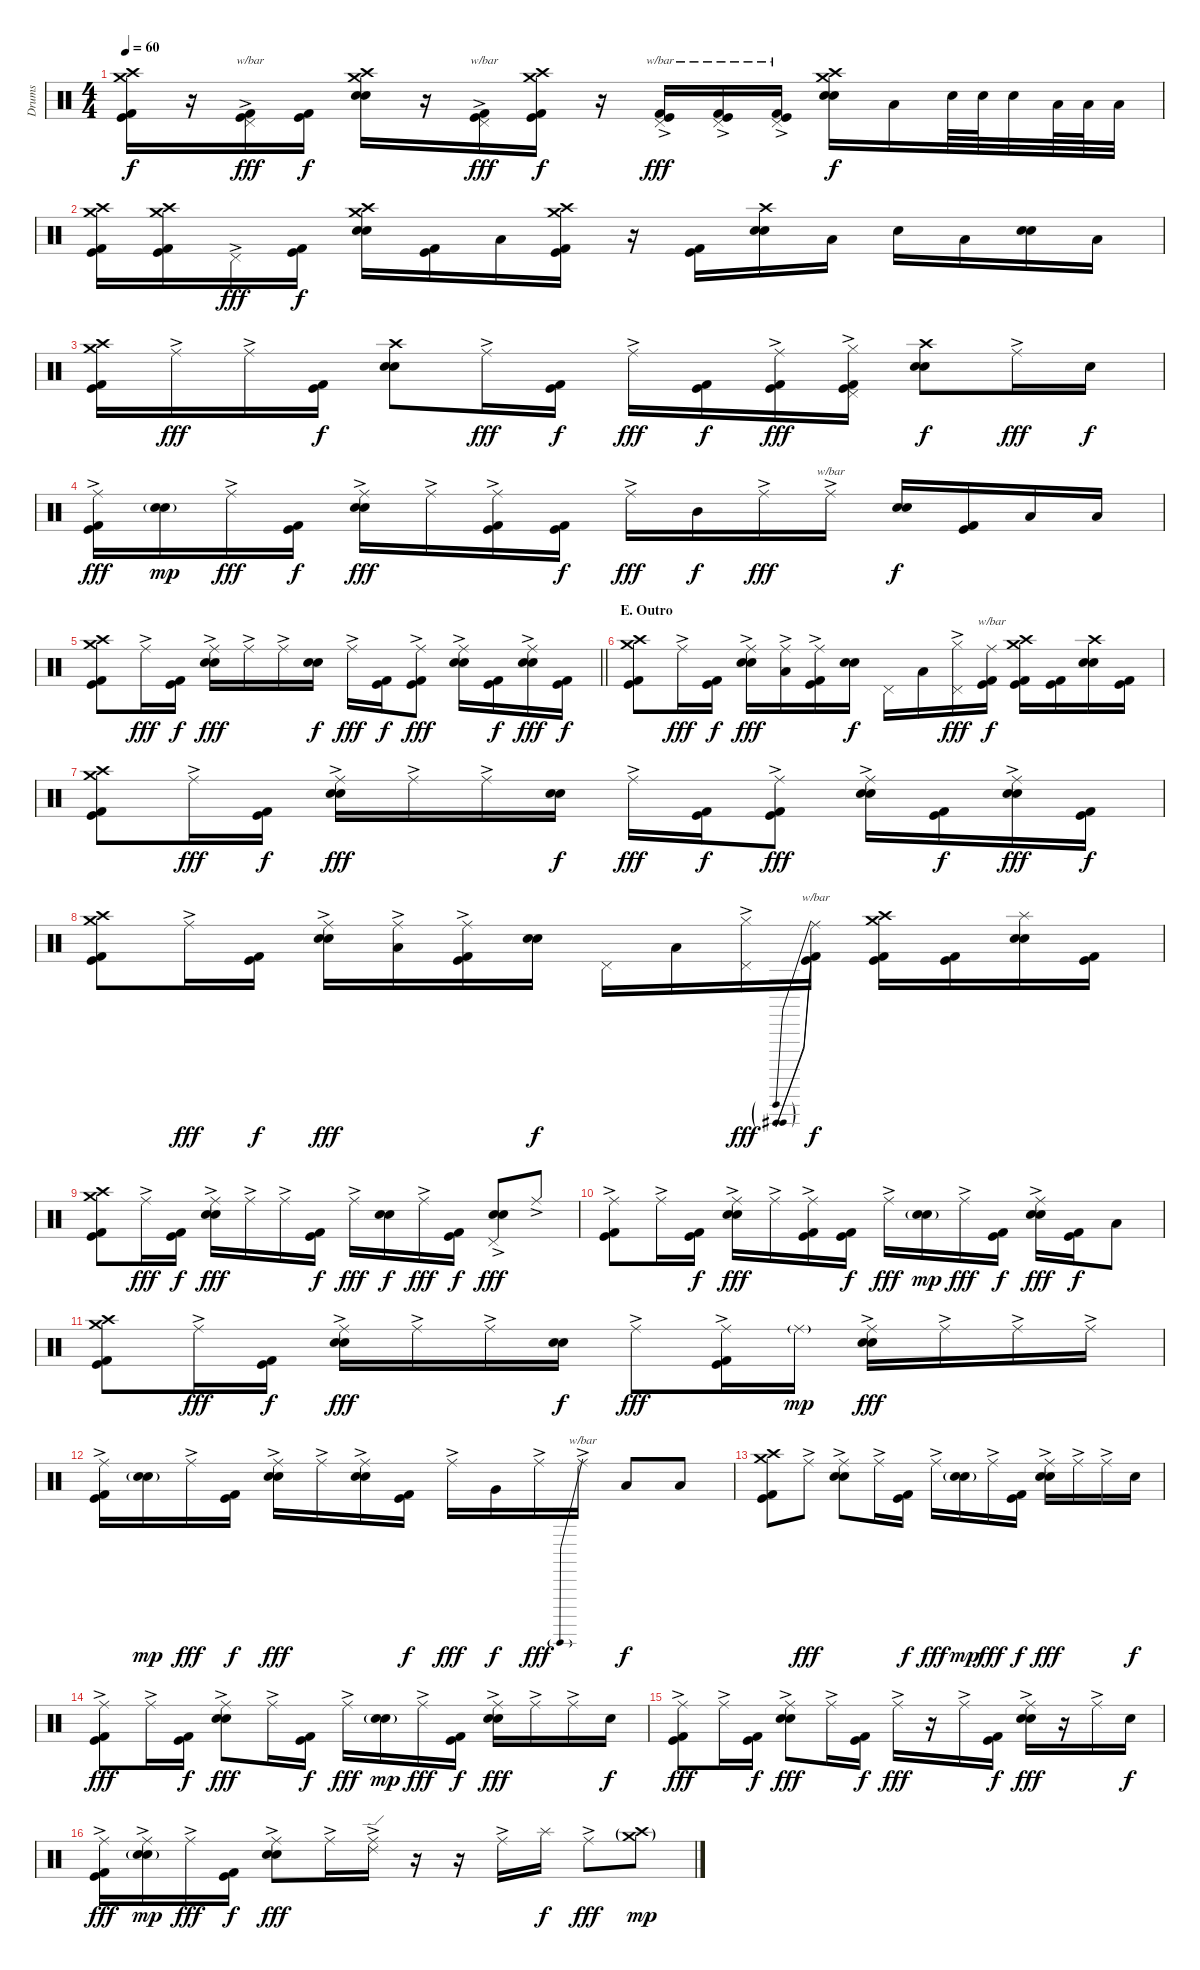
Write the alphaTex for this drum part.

\track ("Drums" "Drums") {instrument percussion}
\staff {score}
\articulation defaults
\ts (4 4)
\tempo 60
\clef neutral
\ks c
("Crash high (hit)" "Crash medium (hit)" "Kick (hit)" "Kick (hit) 2").16{dy f} r.16 ("Pedal Hi-Hat (hit)"{ac} "Kick (hit)" "Kick (hit) 2").16{tbe (custom default 0 0 45 -4 60 -4) dy fff} ("Kick (hit) 2" "Kick (hit)").16{dy f} ("Crash high (hit)" "Crash medium (hit)" "Snare (hit) 2" "Electric Snare (hit)").16 r.16 ("Pedal Hi-Hat (hit)"{ac} "Kick (hit)" "Kick (hit) 2").16{tbe (custom default 0 0 45 -4 60 -4) dy fff} ("Crash high (hit)" "Crash medium (hit)" "Kick (hit) 2" "Kick (hit)").16{dy f} r.16 ("Pedal Hi-Hat (hit)"{ac} "Kick (hit)" "Kick (hit) 2").16{tbe (custom default 0 0 45 -4 60 -4) dy fff} ("Pedal Hi-Hat (hit)"{ac} "Kick (hit)" "Kick (hit) 2").16{tbe (custom default 0 0 45 -4 60 -4)} ("Pedal Hi-Hat (hit)"{ac} "Kick (hit)" "Kick (hit) 2").16{tbe (custom default 0 0 45 -4 60 -4)} ("Crash high (hit)" "Crash medium (hit)" "Snare (hit) 2" "Electric Snare (hit)").16{dy f} "Low Floor Tom (hit)".16 "Electric Snare (hit)".64 "Electric Snare (hit)".64 "Electric Snare (hit)".32 "Low Tom (hit)".64 "Low Tom (hit)".64 "Low Tom (hit)".32 |
("Crash high (hit)" "Crash medium (hit)" "Kick (hit)" "Kick (hit) 2").16 ("Crash high (hit)" "Crash medium (hit)" "Kick (hit)" "Kick (hit) 2").16 "Pedal Hi-Hat (hit)"{ac}.16{dy fff} ("Kick (hit)" "Kick (hit) 2").16{dy f} ("Crash high (hit)" "Crash medium (hit)" "Snare (hit) 2" "Electric Snare (hit)").16 ("Kick (hit)" "Kick (hit) 2").16 "Low Tom (hit)".16 ("Crash high (hit)" "Crash medium (hit)" "Kick (hit) 2" "Kick (hit)").16 r.16 ("Kick (hit) 2" "Kick (hit)").16 ("Crash high (hit)" "Snare (hit) 2" "Electric Snare (hit)").16 "Low Floor Tom (hit)".16 "Snare (hit) 2".16 "Low Tom (hit)".16 ("Snare (hit) 2" "Electric Snare (hit)").16 "Low Floor Tom (hit)".16 |
("Crash high (hit)" "Crash medium (hit)" "Kick (hit)" "Kick (hit) 2").16 "Ride (middle)"{ac}.16{dy fff} "Ride (middle)"{ac}.16 ("Kick (hit)" "Kick (hit) 2").16{dy f} ("Crash high (hit)" "Snare (hit) 2" "Electric Snare (hit)").8 "Ride (middle)"{ac}.16{dy fff} ("Kick (hit)" "Kick (hit) 2").16{dy f} "Ride (middle)"{ac}.16{dy fff} ("Kick (hit)" "Kick (hit) 2").16{dy f} ("Ride (middle)"{ac} "Kick (hit)" "Kick (hit) 2").16{dy fff} ("Hi-Hat (closed)"{ac} "Pedal Hi-Hat (hit)"{ac} "Kick (hit)" "Kick (hit) 2").16 ("Crash high (hit)" "Snare (hit) 2" "Electric Snare (hit)").8{dy f} "Ride (middle)"{ac}.16{dy fff} "Snare (hit) 2".16{dy f} |
("Ride (middle)"{ac} "Kick (hit) 2" "Kick (hit)").16{dy fff} ("Electric Snare (hit)"{g} "Snare (hit) 2"{g}).16{dy mp} "Ride (middle)"{ac}.16{dy fff} ("Kick (hit) 2" "Kick (hit)").16{dy f} ("Ride (middle)"{ac} "Electric Snare (hit)" "Snare (hit) 2").16{dy fff} "Ride (middle)"{ac}.16 ("Ride (middle)"{ac} "Kick (hit) 2" "Kick (hit)").16 ("Kick (hit) 2" "Kick (hit)").16{dy f} "Ride (middle)"{ac}.16{dy fff} "Mid Tom (hit)".16{dy f} "Ride (middle)"{ac}.16{dy fff} "Ride (middle)"{ac}.16{tbe (custom default 0 0 45 -12 60 -12)} ("Electric Snare (hit)" "Snare (hit) 2").16{dy f} ("Kick (hit) 2" "Kick (hit)").16 "Low Tom (hit)".16 "Low Floor Tom (hit)".16 |
\barLineRight lightlight
("Crash high (hit)" "Crash medium (hit)" "Kick (hit)" "Kick (hit) 2").8 "Ride (middle)"{ac}.16{dy fff} ("Kick (hit)" "Kick (hit) 2").16{dy f} ("Ride (middle)"{ac} "Electric Snare (hit)" "Snare (hit) 2").16{dy fff} "Ride (middle)"{ac}.16 "Ride (middle)"{ac}.16 ("Electric Snare (hit)" "Snare (hit) 2").16{dy f} "Ride (middle)"{ac}.16{dy fff} ("Kick (hit)" "Kick (hit) 2").16{dy f} ("Ride (middle)"{ac} "Kick (hit)" "Kick (hit) 2").8{dy fff} ("Ride (middle)"{ac} "Electric Snare (hit)" "Snare (hit) 2").16 ("Kick (hit)" "Kick (hit) 2").16{dy f} ("Ride (middle)"{ac} "Electric Snare (hit)" "Snare (hit) 2").16{dy fff} ("Kick (hit)" "Kick (hit) 2").16{dy f} |
\section ("" "E. Outro")
("Crash high (hit)" "Crash medium (hit)" "Kick (hit)" "Kick (hit) 2").8 "Ride (middle)"{ac}.16{dy fff} ("Kick (hit)" "Kick (hit) 2").16{dy f} ("Ride (middle)"{ac} "Electric Snare (hit)" "Snare (hit) 2").16{dy fff} ("Ride (middle)"{ac} "Low Tom (hit)").16 ("Ride (middle)"{ac} "Kick (hit)" "Kick (hit) 2").16 ("Electric Snare (hit)" "Snare (hit) 2").16{dy f} "Pedal Hi-Hat (hit)".16 "Low Floor Tom (hit)".16 ("Hi-Hat (closed)"{ac} "Pedal Hi-Hat (hit)").16{dy fff} ("Ride (middle)" "Kick (hit)" "Kick (hit) 2").16{tbe (custom default 0 0 45 -12 60 -12) dy f} ("Crash high (hit)" "Crash medium (hit)" "Kick (hit)" "Kick (hit) 2").16 ("Kick (hit)" "Kick (hit) 2").16 ("Crash high (hit)" "Snare (hit) 2" "Electric Snare (hit)").16 ("Kick (hit)" "Kick (hit) 2").16 |
("Crash high (hit)" "Crash medium (hit)" "Kick (hit)" "Kick (hit) 2").8 "Ride (middle)"{ac}.16{dy fff} ("Kick (hit)" "Kick (hit) 2").16{dy f} ("Ride (middle)"{ac} "Electric Snare (hit)" "Snare (hit) 2").16{dy fff} "Ride (middle)"{ac}.16 "Ride (middle)"{ac}.16 ("Electric Snare (hit)" "Snare (hit) 2").16{dy f} "Ride (middle)"{ac}.16{dy fff} ("Kick (hit)" "Kick (hit) 2").16{dy f} ("Ride (middle)"{ac} "Kick (hit)" "Kick (hit) 2").8{dy fff} ("Ride (middle)"{ac} "Electric Snare (hit)" "Snare (hit) 2").16 ("Kick (hit)" "Kick (hit) 2").16{dy f} ("Ride (middle)"{ac} "Electric Snare (hit)" "Snare (hit) 2").16{dy fff} ("Kick (hit)" "Kick (hit) 2").16{dy f} |
("Crash high (hit)" "Crash medium (hit)" "Kick (hit)" "Kick (hit) 2").8 "Ride (middle)"{ac}.16{dy fff} ("Kick (hit)" "Kick (hit) 2").16{dy f} ("Ride (middle)"{ac} "Electric Snare (hit)" "Snare (hit) 2").16{dy fff} ("Ride (middle)"{ac} "Low Tom (hit)").16 ("Ride (middle)"{ac} "Kick (hit)" "Kick (hit) 2").16 ("Electric Snare (hit)" "Snare (hit) 2").16{dy f} "Pedal Hi-Hat (hit)".16 "Low Floor Tom (hit)".16 ("Hi-Hat (closed)"{ac} "Pedal Hi-Hat (hit)").16{dy fff} ("Ride (middle)" "Kick (hit)" "Kick (hit) 2").16{tbe (predive default 0 -12 60 -12) dy f} ("Crash high (hit)" "Crash medium (hit)" "Kick (hit)" "Kick (hit) 2").16 ("Kick (hit)" "Kick (hit) 2").16 ("Splash (hit)" "Snare (hit) 2" "Electric Snare (hit)").16 ("Kick (hit)" "Kick (hit) 2").16 |
("Crash medium (hit)" "Crash high (hit)" "Kick (hit)" "Kick (hit) 2").8 "Ride (middle)"{ac}.16{dy fff} ("Kick (hit)" "Kick (hit) 2").16{dy f} ("Ride (middle)"{ac} "Electric Snare (hit)" "Snare (hit) 2").16{dy fff} "Ride (middle)"{ac}.16 "Ride (middle)"{ac}.16 ("Kick (hit)" "Kick (hit) 2").16{dy f} "Ride (middle)"{ac}.16{dy fff} ("Electric Snare (hit)" "Snare (hit) 2").16{dy f} "Ride (middle)"{ac}.16{dy fff} ("Kick (hit)" "Kick (hit) 2").16{dy f} ("Pedal Hi-Hat (hit)"{ac} "Electric Snare (hit)" "Snare (hit) 2").8{dy fff} "Ride (middle)"{ac}.8 |
("Ride (middle)"{ac} "Kick (hit)" "Kick (hit) 2").8 "Ride (middle)"{ac}.16 ("Kick (hit)" "Kick (hit) 2").16{dy f} ("Ride (middle)"{ac} "Electric Snare (hit)" "Snare (hit) 2").16{dy fff} "Ride (middle)"{ac}.16 ("Ride (middle)"{ac} "Kick (hit)" "Kick (hit) 2").16 ("Kick (hit)" "Kick (hit) 2").16{dy f} "Ride (middle)"{ac}.16{dy fff} ("Electric Snare (hit)"{g} "Snare (hit) 2"{g}).16{dy mp} "Ride (middle)"{ac}.16{dy fff} ("Kick (hit)" "Kick (hit) 2").16{dy f} ("Ride (middle)"{ac} "Electric Snare (hit)" "Snare (hit) 2").16{dy fff} ("Kick (hit)" "Kick (hit) 2").16{dy f} "Low Floor Tom (hit)".8 |
("Crash high (hit)" "Crash medium (hit)" "Kick (hit)" "Kick (hit) 2").8 "Ride (middle)"{ac}.16{dy fff} ("Kick (hit)" "Kick (hit) 2").16{dy f} ("Ride (middle)"{ac} "Electric Snare (hit)" "Snare (hit) 2").16{dy fff} "Ride (middle)"{ac}.16 "Ride (middle)"{ac}.16 ("Snare (hit) 2" "Electric Snare (hit)").16{dy f} "Ride (middle)"{ac}.8{dy fff} ("Ride (middle)"{ac} "Kick (hit)" "Kick (hit) 2").16 "Ride (middle)"{g}.16{dy mp} ("Ride (middle)"{ac} "Electric Snare (hit)" "Snare (hit) 2").16{dy fff} "Ride (middle)"{ac}.16 "Ride (middle)"{ac}.16 "Ride (middle)"{ac}.16 |
("Ride (middle)"{ac} "Kick (hit)" "Kick (hit) 2").16 ("Electric Snare (hit)"{g} "Snare (hit) 2"{g}).16{dy mp} "Ride (middle)"{ac}.16{dy fff} ("Kick (hit)" "Kick (hit) 2").16{dy f} ("Ride (middle)"{ac} "Electric Snare (hit)" "Snare (hit) 2").16{dy fff} "Ride (middle)"{ac}.16 ("Ride (middle)"{ac} "Electric Snare (hit)" "Snare (hit) 2").16 ("Kick (hit)" "Kick (hit) 2").16{dy f} "Ride (middle)"{ac}.16{dy fff} "Very Low Tom (hit)".16{dy f} "Ride (middle)"{ac}.16{dy fff} "Ride (middle)"{ac}.16{tbe (predive default 0 -12 60 -12)} "Low Tom (hit)".8{dy f} "Low Floor Tom (hit)".8 |
("Crash high (hit)" "Crash medium (hit)" "Kick (hit)" "Kick (hit) 2").8 "Ride (middle)"{ac}.8{dy fff} ("Ride (middle)"{ac} "Electric Snare (hit)" "Snare (hit) 2").8 "Ride (middle)"{ac}.16 ("Kick (hit)" "Kick (hit) 2").16{dy f} "Ride (middle)"{ac}.16{dy fff} ("Electric Snare (hit)"{g} "Snare (hit) 2"{g}).16{dy mp} "Ride (middle)"{ac}.16{dy fff} ("Kick (hit)" "Kick (hit) 2").16{dy f} ("Ride (middle)"{ac} "Electric Snare (hit)" "Snare (hit) 2").16{dy fff} "Ride (middle)"{ac}.16 "Ride (middle)"{ac}.16 "Snare (hit) 2".16{dy f} |
("Ride (middle)"{ac} "Kick (hit)" "Kick (hit) 2").8{dy fff} "Ride (middle)"{ac}.16 ("Kick (hit)" "Kick (hit) 2").16{dy f} ("Ride (middle)"{ac} "Electric Snare (hit)" "Snare (hit) 2").8{dy fff} "Ride (middle)"{ac}.16 ("Kick (hit)" "Kick (hit) 2").16{dy f} "Ride (middle)"{ac}.16{dy fff} ("Electric Snare (hit)"{g} "Snare (hit) 2"{g}).16{dy mp} "Ride (middle)"{ac}.16{dy fff} ("Kick (hit)" "Kick (hit) 2").16{dy f} ("Ride (middle)"{ac} "Electric Snare (hit)" "Snare (hit) 2").16{dy fff} "Ride (middle)"{ac}.16 "Ride (middle)"{ac}.16 "Snare (hit) 2".16{dy f} |
("Ride (middle)"{ac} "Kick (hit)" "Kick (hit) 2").8{dy fff} "Ride (middle)"{ac}.16 ("Kick (hit)" "Kick (hit) 2").16{dy f} ("Ride (middle)"{ac} "Electric Snare (hit)" "Snare (hit) 2").8{dy fff} "Ride (middle)"{ac}.16 ("Kick (hit)" "Kick (hit) 2").16{dy f} "Ride (middle)"{ac}.16{dy fff} r.16 "Ride (middle)"{ac}.16 ("Kick (hit)" "Kick (hit) 2").16{dy f} ("Ride (middle)"{ac} "Electric Snare (hit)" "Snare (hit) 2").16{dy fff} r.16 "Ride (middle)"{ac}.16 "Snare (hit) 2".16{dy f} |
("Ride (middle)"{ac} "Kick (hit) 2" "Kick (hit)").16{dy fff} ("Ride (middle)"{ac} "Snare (hit) 2"{g} "Electric Snare (hit)"{g}).16{dy mp} "Ride (middle)"{ac}.16{dy fff} ("Kick (hit) 2" "Kick (hit)").16{dy f} ("Ride (middle)"{ac} "Snare (hit) 2" "Electric Snare (hit)").8{dy fff} "Ride (middle)"{ac}.16 ("Ride (edge) 2"{ac} "Ride (middle)"{ac}).16 r.16 r.16 "Ride (middle)"{ac}.16 "Splash (hit)".16{dy f} "Ride (middle)"{ac}.8{dy fff} ("Crash high (hit)"{g} "Crash medium (hit)"{g}).8{dy mp}
